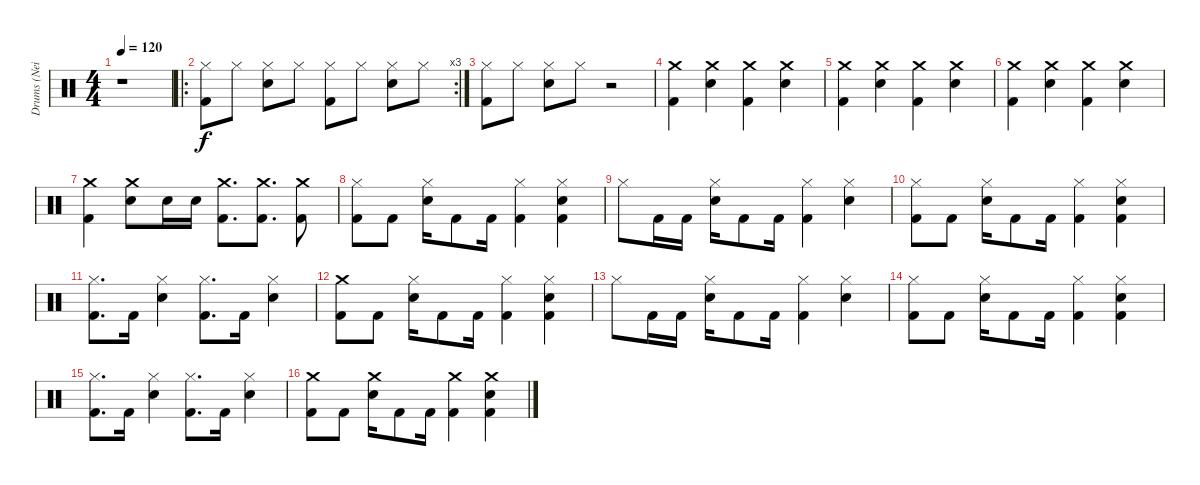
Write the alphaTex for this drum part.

\track ("Drums (Neil)" "Drums (Nei") {instrument percussion}
\staff {score}
\articulation defaults
\ts (4 4)
\tempo 120
\clef neutral
\ks c
r.1{dy f} |
\ro
\rc 3
("Hi-Hat (closed)" "Kick (hit) 2").8 "Hi-Hat (closed)".8 ("Hi-Hat (closed)" "Electric Snare (hit)").8 "Hi-Hat (closed)".8 ("Hi-Hat (closed)" "Kick (hit) 2").8 "Hi-Hat (closed)".8 ("Hi-Hat (closed)" "Electric Snare (hit)").8 "Hi-Hat (closed)".8 |
("Hi-Hat (closed)" "Kick (hit) 2").8 "Hi-Hat (closed)".8 ("Hi-Hat (closed)" "Electric Snare (hit)").8 "Hi-Hat (closed)".8 r.2 |
("Crash medium (hit)" "Kick (hit) 2").4 ("Crash medium (hit)" "Electric Snare (hit)").4 ("Crash medium (hit)" "Kick (hit) 2").4 ("Crash medium (hit)" "Electric Snare (hit)").4 |
("Crash medium (hit)" "Kick (hit) 2").4 ("Crash medium (hit)" "Electric Snare (hit)").4 ("Crash medium (hit)" "Kick (hit) 2").4 ("Crash medium (hit)" "Electric Snare (hit)").4 |
("Crash medium (hit)" "Kick (hit) 2").4 ("Crash medium (hit)" "Electric Snare (hit)").4 ("Crash medium (hit)" "Kick (hit) 2").4 ("Crash medium (hit)" "Electric Snare (hit)").4 |
("Crash medium (hit)" "Kick (hit) 2").4 ("Crash medium (hit)" "Electric Snare (hit)").8 "Electric Snare (hit)".16 "Electric Snare (hit)".16 ("Crash medium (hit)" "Kick (hit) 2").8{d} ("Crash medium (hit)" "Kick (hit) 2").8{d} ("Crash medium (hit)" "Kick (hit) 2").8 |
("Hi-Hat (closed)" "Kick (hit) 2").8 "Kick (hit) 2".8 ("Hi-Hat (closed)" "Electric Snare (hit)").16 "Kick (hit) 2".8 "Kick (hit) 2".16 ("Hi-Hat (closed)" "Kick (hit) 2").4 ("Hi-Hat (closed)" "Electric Snare (hit)" "Kick (hit) 2").4 |
"Hi-Hat (closed)".8 "Kick (hit) 2".16 "Kick (hit) 2".16 ("Hi-Hat (closed)" "Electric Snare (hit)").16 "Kick (hit) 2".8 "Kick (hit) 2".16 ("Hi-Hat (closed)" "Kick (hit) 2").4 ("Hi-Hat (closed)" "Electric Snare (hit)").4 |
("Hi-Hat (closed)" "Kick (hit) 2").8 "Kick (hit) 2".8 ("Hi-Hat (closed)" "Electric Snare (hit)").16 "Kick (hit) 2".8 "Kick (hit) 2".16 ("Hi-Hat (closed)" "Kick (hit) 2").4 ("Hi-Hat (closed)" "Electric Snare (hit)" "Kick (hit) 2").4 |
("Hi-Hat (closed)" "Kick (hit) 2").8{d} "Kick (hit) 2".16 ("Hi-Hat (closed)" "Electric Snare (hit)").4 ("Hi-Hat (closed)" "Kick (hit) 2").8{d} "Kick (hit) 2".16 ("Hi-Hat (closed)" "Electric Snare (hit)").4 |
("Crash medium (hit)" "Kick (hit) 2").8 "Kick (hit) 2".8 ("Hi-Hat (closed)" "Electric Snare (hit)").16 "Kick (hit) 2".8 "Kick (hit) 2".16 ("Hi-Hat (closed)" "Kick (hit) 2").4 ("Hi-Hat (closed)" "Electric Snare (hit)" "Kick (hit) 2").4 |
"Hi-Hat (closed)".8 "Kick (hit) 2".16 "Kick (hit) 2".16 ("Hi-Hat (closed)" "Electric Snare (hit)").16 "Kick (hit) 2".8 "Kick (hit) 2".16 ("Hi-Hat (closed)" "Kick (hit) 2").4 ("Hi-Hat (closed)" "Electric Snare (hit)").4 |
("Hi-Hat (closed)" "Kick (hit) 2").8 "Kick (hit) 2".8 ("Hi-Hat (closed)" "Electric Snare (hit)").16 "Kick (hit) 2".8 "Kick (hit) 2".16 ("Hi-Hat (closed)" "Kick (hit) 2").4 ("Hi-Hat (closed)" "Electric Snare (hit)" "Kick (hit) 2").4 |
("Hi-Hat (closed)" "Kick (hit) 2").8{d} "Kick (hit) 2".16 ("Hi-Hat (closed)" "Electric Snare (hit)").4 ("Hi-Hat (closed)" "Kick (hit) 2").8{d} "Kick (hit) 2".16 ("Hi-Hat (closed)" "Electric Snare (hit)").4 |
("Crash medium (hit)" "Kick (hit) 2").8 "Kick (hit) 2".8 ("Crash medium (hit)" "Electric Snare (hit)").16 "Kick (hit) 2".8 "Kick (hit) 2".16 ("Crash medium (hit)" "Kick (hit) 2").4 ("Crash medium (hit)" "Electric Snare (hit)" "Kick (hit) 2").4
